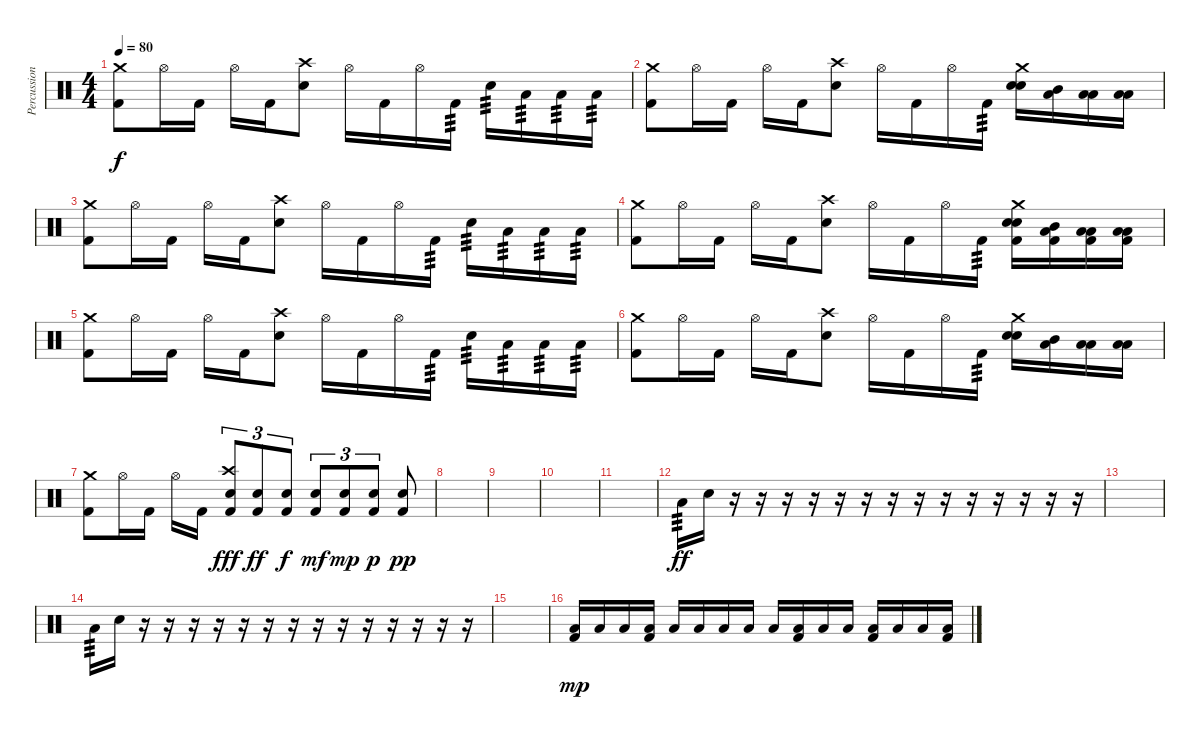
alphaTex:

\track ("Percussion" "Percussion") {instrument percussion}
\staff {score}
\articulation defaults
\ts (4 4)
\tempo 80
\clef neutral
\ks c
("Crash medium (hit)" "Kick (hit) 2").8{dy f} "Hi-Hat (open)".16 "Kick (hit) 2".16 "Hi-Hat (open)".16 "Kick (hit) 2".16 ("Crash high (hit)" "Snare (hit) 2").8 "Hi-Hat (open)".16 "Kick (hit) 2".16 "Hi-Hat (open)".16 "Kick (hit) 2".16{tp 3} "Snare (hit) 2".16{tp 3} "Low Tom (hit)".16{tp 3} "Low Floor Tom (hit)".16{tp 3} "Low Floor Tom (hit)".16{tp 3} |
("Crash medium (hit)" "Kick (hit) 2").8 "Hi-Hat (open)".16 "Kick (hit) 2".16 "Hi-Hat (open)".16 "Kick (hit) 2".16 ("Crash high (hit)" "Snare (hit) 2").8 "Hi-Hat (open)".16 "Kick (hit) 2".16 "Hi-Hat (open)".16 "Kick (hit) 2".16{tp 3} ("Crash medium (hit)" "Snare (hit) 2" "Snare (hit) 2").16 ("Mid Tom (hit)" "Low Tom (hit)").16 ("Low Tom (hit)" "Low Floor Tom (hit)").16 ("Low Tom (hit)" "Low Floor Tom (hit)").16 |
("Crash medium (hit)" "Kick (hit) 2").8 "Hi-Hat (open)".16 "Kick (hit) 2".16 "Hi-Hat (open)".16 "Kick (hit) 2".16 ("Crash high (hit)" "Snare (hit) 2").8 "Hi-Hat (open)".16 "Kick (hit) 2".16 "Hi-Hat (open)".16 "Kick (hit) 2".16{tp 3} "Snare (hit) 2".16{tp 3} "Low Tom (hit)".16{tp 3} "Low Floor Tom (hit)".16{tp 3} "Low Floor Tom (hit)".16{tp 3} |
("Crash medium (hit)" "Kick (hit) 2").8 "Hi-Hat (open)".16 "Kick (hit) 2".16 "Hi-Hat (open)".16 "Kick (hit) 2".16 ("Crash high (hit)" "Snare (hit) 2").8 "Hi-Hat (open)".16 "Kick (hit) 2".16 "Hi-Hat (open)".16 "Kick (hit) 2".16{tp 3} ("Crash medium (hit)" "Snare (hit) 2" "Snare (hit) 2" "Kick (hit) 2").16 ("Mid Tom (hit)" "Low Tom (hit)" "Kick (hit) 2").16 ("Low Tom (hit)" "Low Floor Tom (hit)" "Kick (hit) 2").16 ("Low Tom (hit)" "Low Floor Tom (hit)" "Kick (hit) 2").16 |
("Crash medium (hit)" "Kick (hit) 2").8 "Hi-Hat (open)".16 "Kick (hit) 2".16 "Hi-Hat (open)".16 "Kick (hit) 2".16 ("Crash high (hit)" "Snare (hit) 2").8 "Hi-Hat (open)".16 "Kick (hit) 2".16 "Hi-Hat (open)".16 "Kick (hit) 2".16{tp 3} "Snare (hit) 2".16{tp 3} "Low Tom (hit)".16{tp 3} "Low Floor Tom (hit)".16{tp 3} "Low Floor Tom (hit)".16{tp 3} |
("Crash medium (hit)" "Kick (hit) 2").8 "Hi-Hat (open)".16 "Kick (hit) 2".16 "Hi-Hat (open)".16 "Kick (hit) 2".16 ("Crash high (hit)" "Snare (hit) 2").8 "Hi-Hat (open)".16 "Kick (hit) 2".16 "Hi-Hat (open)".16 "Kick (hit) 2".16{tp 3} ("Crash medium (hit)" "Snare (hit) 2" "Snare (hit) 2").16 ("Mid Tom (hit)" "Low Tom (hit)").16 ("Low Tom (hit)" "Low Floor Tom (hit)").16 ("Low Tom (hit)" "Low Floor Tom (hit)").16 |
("Crash medium (hit)" "Kick (hit) 2").8 "Hi-Hat (open)".16 "Kick (hit) 2".16 "Hi-Hat (open)".16 "Kick (hit) 2".16 ("Crash high (hit)" "Snare (hit) 2" "Kick (hit) 2").8{tu (3 2) dy fff} ("Snare (hit) 2" "Kick (hit) 2").8{tu (3 2) dy ff} ("Snare (hit) 2" "Kick (hit) 2").8{tu (3 2) dy f} ("Snare (hit) 2" "Kick (hit) 2").8{tu (3 2) dy mf} ("Snare (hit) 2" "Kick (hit) 2").8{tu (3 2) dy mp} ("Snare (hit) 2" "Kick (hit) 2").8{tu (3 2) dy p} ("Snare (hit) 2" "Kick (hit) 2").8{dy pp} |
|
|
|
|
"Low Floor Tom (hit)".16{tp 3 dy ff} "Snare (hit) 2".16 r.16 r.16 r.16 r.16 r.16 r.16 r.16 r.16 r.16 r.16 r.16 r.16 r.16 r.16 |
|
"Low Floor Tom (hit)".16{tp 3} "Snare (hit) 2".16 r.16 r.16 r.16 r.16 r.16 r.16 r.16 r.16 r.16 r.16 r.16 r.16 r.16 r.16 |
|
("Low Floor Tom (hit)" "Kick (hit) 2").16{dy mp} "Low Floor Tom (hit)".16 "Low Floor Tom (hit)".16 ("Low Floor Tom (hit)" "Kick (hit) 2").16 "Low Floor Tom (hit)".16 "Low Floor Tom (hit)".16 "Low Floor Tom (hit)".16 "Low Floor Tom (hit)".16 "Low Floor Tom (hit)".16 ("Low Floor Tom (hit)" "Kick (hit) 2").16 "Low Floor Tom (hit)".16 "Low Floor Tom (hit)".16 ("Low Floor Tom (hit)" "Kick (hit) 2").16 "Low Floor Tom (hit)".16 "Low Floor Tom (hit)".16 ("Low Floor Tom (hit)" "Kick (hit) 2").16
